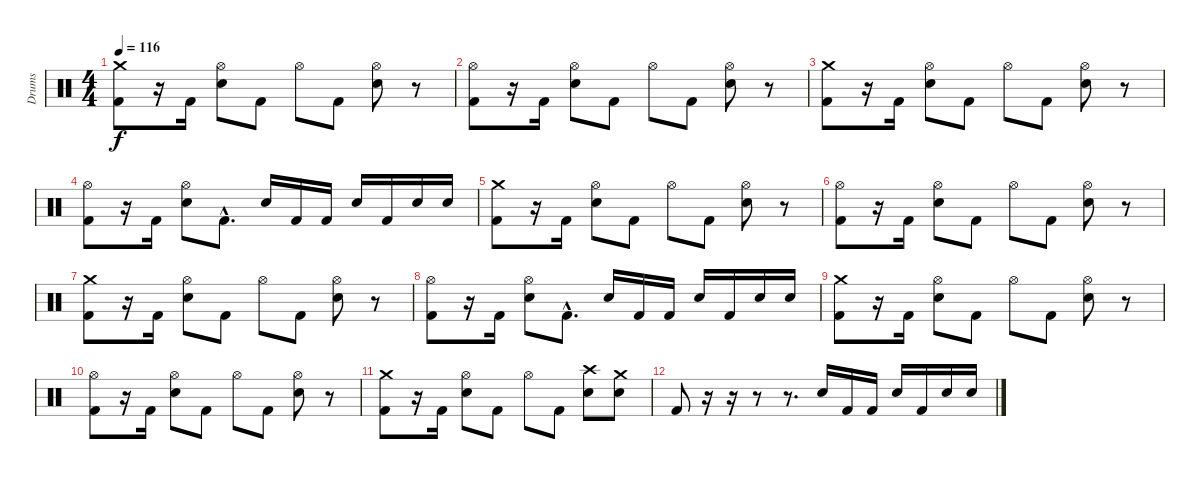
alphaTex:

\track ("Drums" "Drums") {instrument percussion}
\staff {score}
\articulation defaults
\ts (4 4)
\tempo 116
\clef neutral
\ks c
("Crash medium (hit)" "Kick (hit) 2").8{dy f} r.16 "Kick (hit) 2".16 ("Hi-Hat (open)" "Electric Snare (hit)").8 "Kick (hit) 2".8 "Hi-Hat (open)".8 "Kick (hit) 2".8 ("Hi-Hat (open)" "Electric Snare (hit)").8 r.8 |
("Hi-Hat (open)" "Kick (hit) 2").8 r.16 "Kick (hit) 2".16 ("Hi-Hat (open)" "Electric Snare (hit)").8 "Kick (hit) 2".8 "Hi-Hat (open)".8 "Kick (hit) 2".8 ("Hi-Hat (open)" "Electric Snare (hit)").8 r.8 |
("Crash medium (hit)" "Kick (hit) 2").8 r.16 "Kick (hit) 2".16 ("Hi-Hat (open)" "Electric Snare (hit)").8 "Kick (hit) 2".8 "Hi-Hat (open)".8 "Kick (hit) 2".8 ("Hi-Hat (open)" "Electric Snare (hit)").8 r.8 |
("Hi-Hat (open)" "Kick (hit) 2").8 r.16 "Kick (hit) 2".16 ("Hi-Hat (open)" "Electric Snare (hit)").8 "Kick (hit) 2"{hac}.8{d} "Electric Snare (hit)".16 "Kick (hit) 2".16 "Kick (hit) 2".16 "Electric Snare (hit)".16 "Kick (hit) 2".16 "Electric Snare (hit)".16 "Electric Snare (hit)".16 |
("Crash medium (hit)" "Kick (hit) 2").8 r.16 "Kick (hit) 2".16 ("Hi-Hat (open)" "Electric Snare (hit)").8 "Kick (hit) 2".8 "Hi-Hat (open)".8 "Kick (hit) 2".8 ("Hi-Hat (open)" "Electric Snare (hit)").8 r.8 |
("Hi-Hat (open)" "Kick (hit) 2").8 r.16 "Kick (hit) 2".16 ("Hi-Hat (open)" "Electric Snare (hit)").8 "Kick (hit) 2".8 "Hi-Hat (open)".8 "Kick (hit) 2".8 ("Hi-Hat (open)" "Electric Snare (hit)").8 r.8 |
("Crash medium (hit)" "Kick (hit) 2").8 r.16 "Kick (hit) 2".16 ("Hi-Hat (open)" "Electric Snare (hit)").8 "Kick (hit) 2".8 "Hi-Hat (open)".8 "Kick (hit) 2".8 ("Hi-Hat (open)" "Electric Snare (hit)").8 r.8 |
("Hi-Hat (open)" "Kick (hit) 2").8 r.16 "Kick (hit) 2".16 ("Hi-Hat (open)" "Electric Snare (hit)").8 "Kick (hit) 2"{hac}.8{d} "Electric Snare (hit)".16 "Kick (hit) 2".16 "Kick (hit) 2".16 "Electric Snare (hit)".16 "Kick (hit) 2".16 "Electric Snare (hit)".16 "Electric Snare (hit)".16 |
("Crash medium (hit)" "Kick (hit) 2").8 r.16 "Kick (hit) 2".16 ("Hi-Hat (open)" "Electric Snare (hit)").8 "Kick (hit) 2".8 "Hi-Hat (open)".8 "Kick (hit) 2".8 ("Hi-Hat (open)" "Electric Snare (hit)").8 r.8 |
("Hi-Hat (open)" "Kick (hit) 2").8 r.16 "Kick (hit) 2".16 ("Hi-Hat (open)" "Electric Snare (hit)").8 "Kick (hit) 2".8 "Hi-Hat (open)".8 "Kick (hit) 2".8 ("Hi-Hat (open)" "Electric Snare (hit)").8 r.8 |
("Crash medium (hit)" "Kick (hit) 2").8 r.16 "Kick (hit) 2".16 ("Hi-Hat (open)" "Electric Snare (hit)").8 "Kick (hit) 2".8 "Hi-Hat (open)".8 "Kick (hit) 2".8 ("Crash high (hit)" "Electric Snare (hit)").8 ("Crash medium (hit)" "Electric Snare (hit)").8 |
"Kick (hit) 2".8 r.16 r.16 r.8 r.8{d} "Electric Snare (hit)".16 "Kick (hit) 2".16 "Kick (hit) 2".16 "Electric Snare (hit)".16 "Kick (hit) 2".16 "Electric Snare (hit)".16 "Electric Snare (hit)".16
